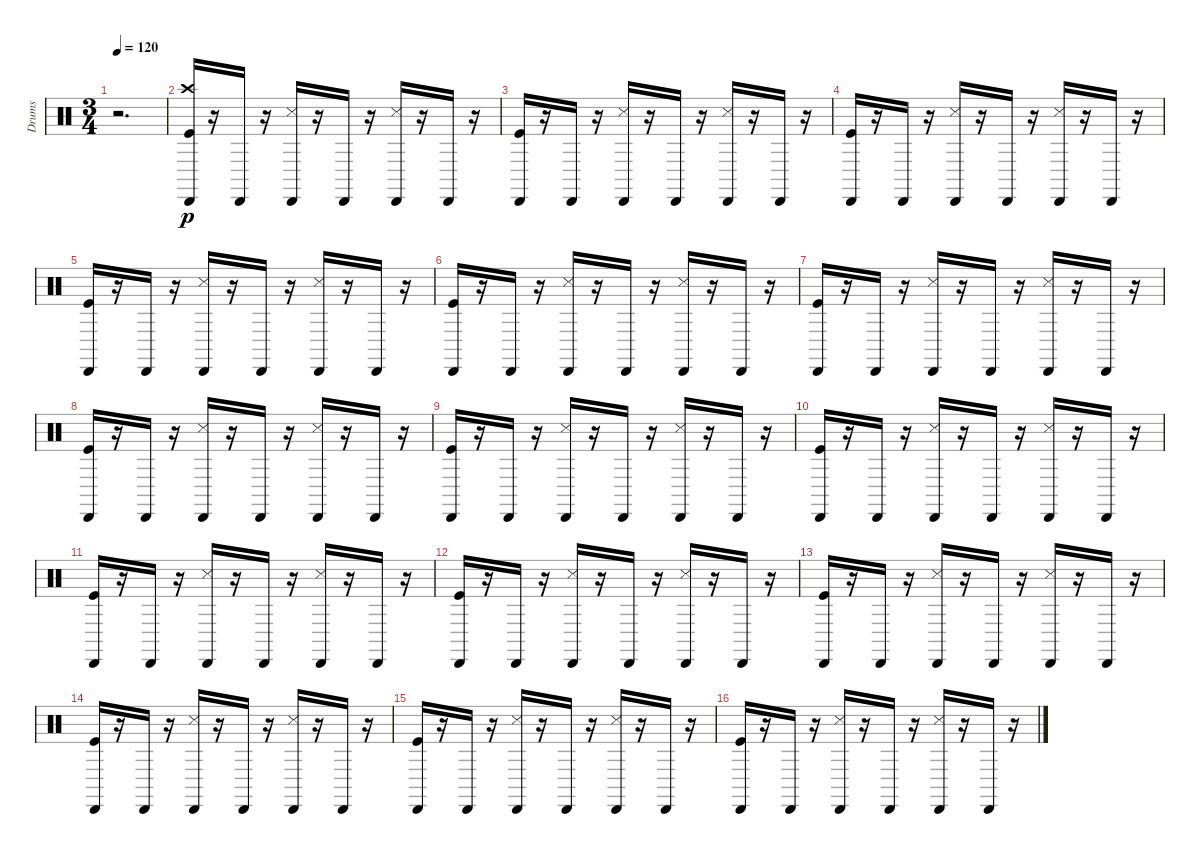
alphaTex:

\track ("Drums" "Drums") {instrument percussion}
\staff {score}
\articulation defaults
\ts (3 4)
\tempo 120
\clef neutral
\ks c
r.2{d dy p} |
("Kick (hit)" "Crash high (hit)" "Cabasa (hit)").16 r.16 "Cabasa (hit)".16 r.16 ("Snare (side stick) 3" "Cabasa (hit)").16 r.16 "Cabasa (hit)".16 r.16 ("Snare (side stick) 3" "Cabasa (hit)").16 r.16 "Cabasa (hit)".16 r.16 |
("Kick (hit)" "Cabasa (hit)").16 r.16 "Cabasa (hit)".16 r.16 ("Snare (side stick) 3" "Cabasa (hit)").16 r.16 "Cabasa (hit)".16 r.16 ("Snare (side stick) 3" "Cabasa (hit)").16 r.16 "Cabasa (hit)".16 r.16 |
("Kick (hit)" "Cabasa (hit)").16 r.16 "Cabasa (hit)".16 r.16 ("Snare (side stick) 3" "Cabasa (hit)").16 r.16 "Cabasa (hit)".16 r.16 ("Snare (side stick) 3" "Cabasa (hit)").16 r.16 "Cabasa (hit)".16 r.16 |
("Kick (hit)" "Cabasa (hit)").16 r.16 "Cabasa (hit)".16 r.16 ("Snare (side stick) 3" "Cabasa (hit)").16 r.16 "Cabasa (hit)".16 r.16 ("Snare (side stick) 3" "Cabasa (hit)").16 r.16 "Cabasa (hit)".16 r.16 |
("Kick (hit)" "Cabasa (hit)").16 r.16 "Cabasa (hit)".16 r.16 ("Snare (side stick) 3" "Cabasa (hit)").16 r.16 "Cabasa (hit)".16 r.16 ("Snare (side stick) 3" "Cabasa (hit)").16 r.16 "Cabasa (hit)".16 r.16 |
("Kick (hit)" "Cabasa (hit)").16 r.16 "Cabasa (hit)".16 r.16 ("Snare (side stick) 3" "Cabasa (hit)").16 r.16 "Cabasa (hit)".16 r.16 ("Snare (side stick) 3" "Cabasa (hit)").16 r.16 "Cabasa (hit)".16 r.16 |
("Kick (hit)" "Cabasa (hit)").16 r.16 "Cabasa (hit)".16 r.16 ("Snare (side stick) 3" "Cabasa (hit)").16 r.16 "Cabasa (hit)".16 r.16 ("Snare (side stick) 3" "Cabasa (hit)").16 r.16 "Cabasa (hit)".16 r.16 |
("Kick (hit)" "Cabasa (hit)").16 r.16 "Cabasa (hit)".16 r.16 ("Snare (side stick) 3" "Cabasa (hit)").16 r.16 "Cabasa (hit)".16 r.16 ("Snare (side stick) 3" "Cabasa (hit)").16 r.16 "Cabasa (hit)".16 r.16 |
("Kick (hit)" "Cabasa (hit)").16 r.16 "Cabasa (hit)".16 r.16 ("Snare (side stick) 3" "Cabasa (hit)").16 r.16 "Cabasa (hit)".16 r.16 ("Snare (side stick) 3" "Cabasa (hit)").16 r.16 "Cabasa (hit)".16 r.16 |
("Kick (hit)" "Cabasa (hit)").16 r.16 "Cabasa (hit)".16 r.16 ("Snare (side stick) 3" "Cabasa (hit)").16 r.16 "Cabasa (hit)".16 r.16 ("Snare (side stick) 3" "Cabasa (hit)").16 r.16 "Cabasa (hit)".16 r.16 |
("Kick (hit)" "Cabasa (hit)").16 r.16 "Cabasa (hit)".16 r.16 ("Snare (side stick) 3" "Cabasa (hit)").16 r.16 "Cabasa (hit)".16 r.16 ("Snare (side stick) 3" "Cabasa (hit)").16 r.16 "Cabasa (hit)".16 r.16 |
("Kick (hit)" "Cabasa (hit)").16 r.16 "Cabasa (hit)".16 r.16 ("Snare (side stick) 3" "Cabasa (hit)").16 r.16 "Cabasa (hit)".16 r.16 ("Snare (side stick) 3" "Cabasa (hit)").16 r.16 "Cabasa (hit)".16 r.16 |
("Kick (hit)" "Cabasa (hit)").16 r.16 "Cabasa (hit)".16 r.16 ("Snare (side stick) 3" "Cabasa (hit)").16 r.16 "Cabasa (hit)".16 r.16 ("Snare (side stick) 3" "Cabasa (hit)").16 r.16 "Cabasa (hit)".16 r.16 |
("Kick (hit)" "Cabasa (hit)").16 r.16 "Cabasa (hit)".16 r.16 ("Snare (side stick) 3" "Cabasa (hit)").16 r.16 "Cabasa (hit)".16 r.16 ("Snare (side stick) 3" "Cabasa (hit)").16 r.16 "Cabasa (hit)".16 r.16 |
("Kick (hit)" "Cabasa (hit)").16 r.16 "Cabasa (hit)".16 r.16 ("Snare (side stick) 3" "Cabasa (hit)").16 r.16 "Cabasa (hit)".16 r.16 ("Snare (side stick) 3" "Cabasa (hit)").16 r.16 "Cabasa (hit)".16 r.16
